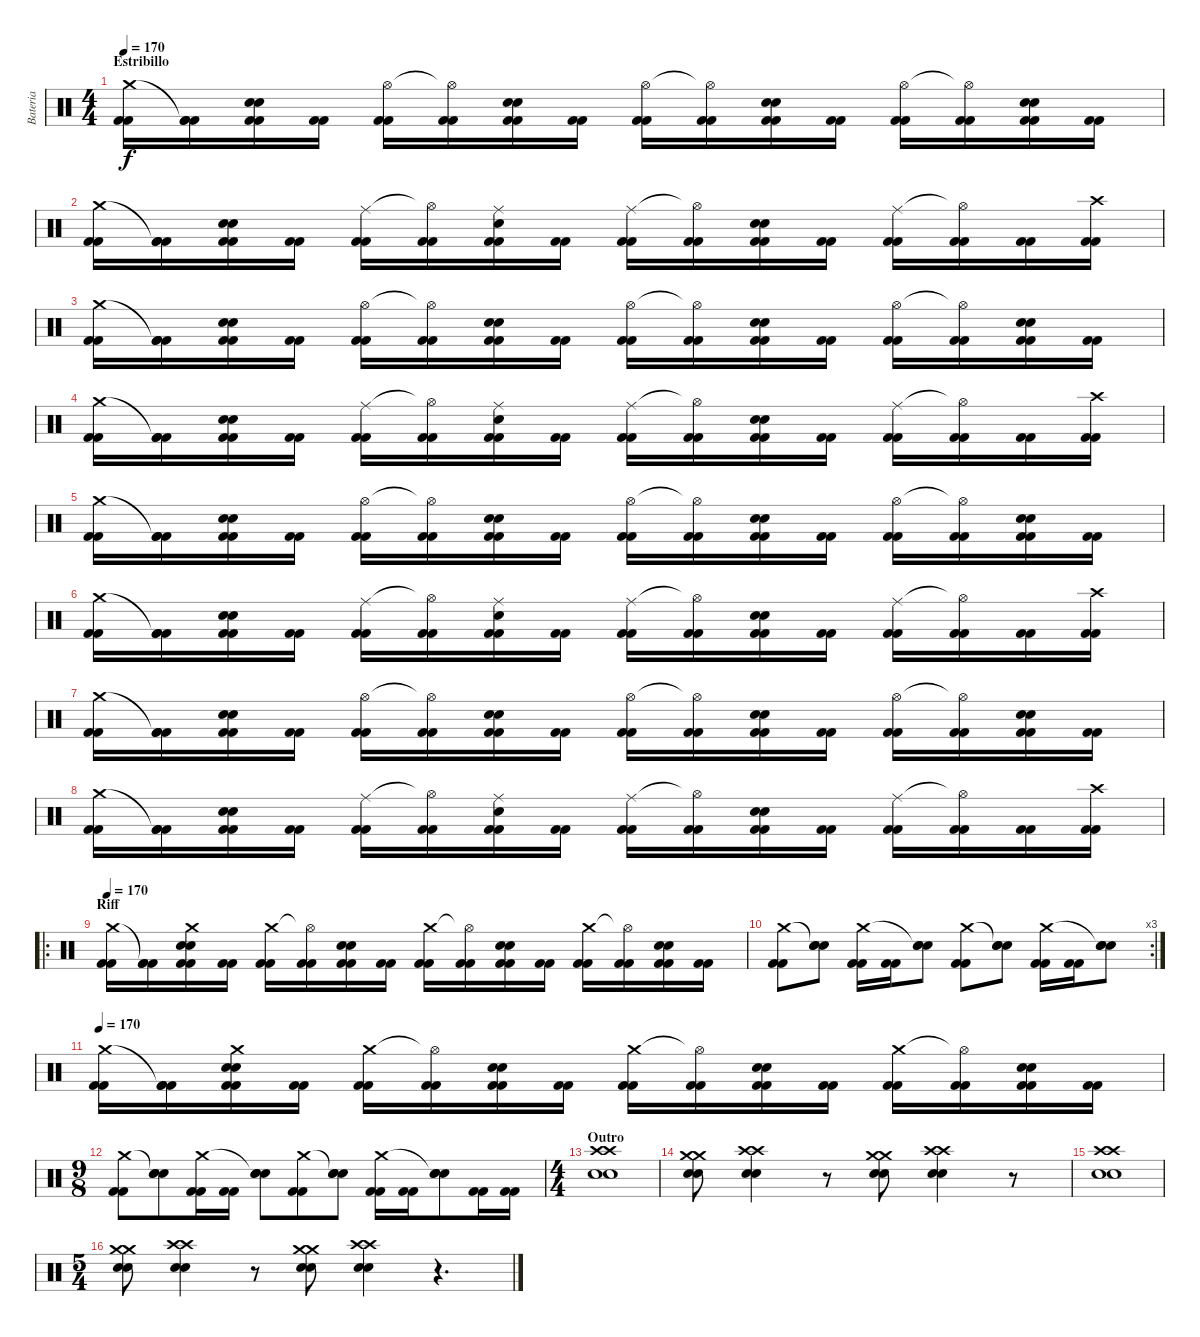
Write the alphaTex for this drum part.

\track ("Bateria" "Bateria") {instrument percussion}
\staff {score}
\articulation defaults
\ts (4 4)
\section ("" "Estribillo")
\tempo 170
\clef neutral
\ks c
("Kick (hit) 2" "Kick (hit) 2" "Crash medium (hit)").16{dy f} ("Kick (hit) 2" "Kick (hit) 2" "Kick (hit) 2"{t}).16 ("Kick (hit) 2" "Kick (hit) 2" "Electric Snare (hit)" "Electric Snare (hit)").16 ("Kick (hit) 2" "Kick (hit) 2").16 ("Kick (hit) 2" "Kick (hit) 2" "Hi-Hat (open)").16 ("Kick (hit) 2" "Kick (hit) 2" "Hi-Hat (open)"{t}).16 ("Kick (hit) 2" "Kick (hit) 2" "Electric Snare (hit)" "Electric Snare (hit)").16 ("Kick (hit) 2" "Kick (hit) 2").16 ("Kick (hit) 2" "Kick (hit) 2" "Hi-Hat (open)").16 ("Kick (hit) 2" "Kick (hit) 2" "Hi-Hat (open)"{t}).16 ("Kick (hit) 2" "Kick (hit) 2" "Electric Snare (hit)" "Electric Snare (hit)").16 ("Kick (hit) 2" "Kick (hit) 2").16 ("Kick (hit) 2" "Kick (hit) 2" "Hi-Hat (open)").16 ("Kick (hit) 2" "Kick (hit) 2" "Hi-Hat (open)"{t}).16 ("Kick (hit) 2" "Kick (hit) 2" "Electric Snare (hit)" "Electric Snare (hit)").16 ("Kick (hit) 2" "Kick (hit) 2").16 |
("Kick (hit) 2" "Kick (hit) 2" "Crash medium (hit)").16 ("Kick (hit) 2" "Kick (hit) 2" "Kick (hit) 2"{t}).16 ("Kick (hit) 2" "Kick (hit) 2" "Electric Snare (hit)" "Electric Snare (hit)").16 ("Kick (hit) 2" "Kick (hit) 2").16 ("Kick (hit) 2" "Kick (hit) 2" "Ride (middle)").16 ("Kick (hit) 2" "Kick (hit) 2" "Hi-Hat (open)"{t}).16 ("Kick (hit) 2" "Kick (hit) 2" "Electric Snare (hit)" "Ride (middle)").16 ("Kick (hit) 2" "Kick (hit) 2").16 ("Kick (hit) 2" "Kick (hit) 2" "Ride (middle)").16 ("Kick (hit) 2" "Kick (hit) 2" "Hi-Hat (open)"{t}).16 ("Kick (hit) 2" "Kick (hit) 2" "Electric Snare (hit)" "Electric Snare (hit)").16 ("Kick (hit) 2" "Kick (hit) 2").16 ("Kick (hit) 2" "Kick (hit) 2" "Ride (middle)").16 ("Kick (hit) 2" "Kick (hit) 2" "Hi-Hat (open)"{t}).16 ("Kick (hit) 2" "Kick (hit) 2").16 ("Kick (hit) 2" "Kick (hit) 2" "Crash high (hit)").16 |
("Kick (hit) 2" "Kick (hit) 2" "Crash medium (hit)").16 ("Kick (hit) 2" "Kick (hit) 2" "Kick (hit) 2"{t}).16 ("Kick (hit) 2" "Kick (hit) 2" "Electric Snare (hit)" "Electric Snare (hit)").16 ("Kick (hit) 2" "Kick (hit) 2").16 ("Kick (hit) 2" "Kick (hit) 2" "Hi-Hat (open)").16 ("Kick (hit) 2" "Kick (hit) 2" "Hi-Hat (open)"{t}).16 ("Kick (hit) 2" "Kick (hit) 2" "Electric Snare (hit)" "Electric Snare (hit)").16 ("Kick (hit) 2" "Kick (hit) 2").16 ("Kick (hit) 2" "Kick (hit) 2" "Hi-Hat (open)").16 ("Kick (hit) 2" "Kick (hit) 2" "Hi-Hat (open)"{t}).16 ("Kick (hit) 2" "Kick (hit) 2" "Electric Snare (hit)" "Electric Snare (hit)").16 ("Kick (hit) 2" "Kick (hit) 2").16 ("Kick (hit) 2" "Kick (hit) 2" "Hi-Hat (open)").16 ("Kick (hit) 2" "Kick (hit) 2" "Hi-Hat (open)"{t}).16 ("Kick (hit) 2" "Kick (hit) 2" "Electric Snare (hit)" "Electric Snare (hit)").16 ("Kick (hit) 2" "Kick (hit) 2").16 |
("Kick (hit) 2" "Kick (hit) 2" "Crash medium (hit)").16 ("Kick (hit) 2" "Kick (hit) 2" "Kick (hit) 2"{t}).16 ("Kick (hit) 2" "Kick (hit) 2" "Electric Snare (hit)" "Electric Snare (hit)").16 ("Kick (hit) 2" "Kick (hit) 2").16 ("Kick (hit) 2" "Kick (hit) 2" "Ride (middle)").16 ("Kick (hit) 2" "Kick (hit) 2" "Hi-Hat (open)"{t}).16 ("Kick (hit) 2" "Kick (hit) 2" "Electric Snare (hit)" "Ride (middle)").16 ("Kick (hit) 2" "Kick (hit) 2").16 ("Kick (hit) 2" "Kick (hit) 2" "Ride (middle)").16 ("Kick (hit) 2" "Kick (hit) 2" "Hi-Hat (open)"{t}).16 ("Kick (hit) 2" "Kick (hit) 2" "Electric Snare (hit)" "Electric Snare (hit)").16 ("Kick (hit) 2" "Kick (hit) 2").16 ("Kick (hit) 2" "Kick (hit) 2" "Ride (middle)").16 ("Kick (hit) 2" "Kick (hit) 2" "Hi-Hat (open)"{t}).16 ("Kick (hit) 2" "Kick (hit) 2").16 ("Kick (hit) 2" "Kick (hit) 2" "Crash high (hit)").16 |
("Kick (hit) 2" "Kick (hit) 2" "Crash medium (hit)").16 ("Kick (hit) 2" "Kick (hit) 2" "Kick (hit) 2"{t}).16 ("Kick (hit) 2" "Kick (hit) 2" "Electric Snare (hit)" "Electric Snare (hit)").16 ("Kick (hit) 2" "Kick (hit) 2").16 ("Kick (hit) 2" "Kick (hit) 2" "Hi-Hat (open)").16 ("Kick (hit) 2" "Kick (hit) 2" "Hi-Hat (open)"{t}).16 ("Kick (hit) 2" "Kick (hit) 2" "Electric Snare (hit)" "Electric Snare (hit)").16 ("Kick (hit) 2" "Kick (hit) 2").16 ("Kick (hit) 2" "Kick (hit) 2" "Hi-Hat (open)").16 ("Kick (hit) 2" "Kick (hit) 2" "Hi-Hat (open)"{t}).16 ("Kick (hit) 2" "Kick (hit) 2" "Electric Snare (hit)" "Electric Snare (hit)").16 ("Kick (hit) 2" "Kick (hit) 2").16 ("Kick (hit) 2" "Kick (hit) 2" "Hi-Hat (open)").16 ("Kick (hit) 2" "Kick (hit) 2" "Hi-Hat (open)"{t}).16 ("Kick (hit) 2" "Kick (hit) 2" "Electric Snare (hit)" "Electric Snare (hit)").16 ("Kick (hit) 2" "Kick (hit) 2").16 |
("Kick (hit) 2" "Kick (hit) 2" "Crash medium (hit)").16 ("Kick (hit) 2" "Kick (hit) 2" "Kick (hit) 2"{t}).16 ("Kick (hit) 2" "Kick (hit) 2" "Electric Snare (hit)" "Electric Snare (hit)").16 ("Kick (hit) 2" "Kick (hit) 2").16 ("Kick (hit) 2" "Kick (hit) 2" "Ride (middle)").16 ("Kick (hit) 2" "Kick (hit) 2" "Hi-Hat (open)"{t}).16 ("Kick (hit) 2" "Kick (hit) 2" "Electric Snare (hit)" "Ride (middle)").16 ("Kick (hit) 2" "Kick (hit) 2").16 ("Kick (hit) 2" "Kick (hit) 2" "Ride (middle)").16 ("Kick (hit) 2" "Kick (hit) 2" "Hi-Hat (open)"{t}).16 ("Kick (hit) 2" "Kick (hit) 2" "Electric Snare (hit)" "Electric Snare (hit)").16 ("Kick (hit) 2" "Kick (hit) 2").16 ("Kick (hit) 2" "Kick (hit) 2" "Ride (middle)").16 ("Kick (hit) 2" "Kick (hit) 2" "Hi-Hat (open)"{t}).16 ("Kick (hit) 2" "Kick (hit) 2").16 ("Kick (hit) 2" "Kick (hit) 2" "Crash high (hit)").16 |
("Kick (hit) 2" "Kick (hit) 2" "Crash medium (hit)").16 ("Kick (hit) 2" "Kick (hit) 2" "Kick (hit) 2"{t}).16 ("Kick (hit) 2" "Kick (hit) 2" "Electric Snare (hit)" "Electric Snare (hit)").16 ("Kick (hit) 2" "Kick (hit) 2").16 ("Kick (hit) 2" "Kick (hit) 2" "Hi-Hat (open)").16 ("Kick (hit) 2" "Kick (hit) 2" "Hi-Hat (open)"{t}).16 ("Kick (hit) 2" "Kick (hit) 2" "Electric Snare (hit)" "Electric Snare (hit)").16 ("Kick (hit) 2" "Kick (hit) 2").16 ("Kick (hit) 2" "Kick (hit) 2" "Hi-Hat (open)").16 ("Kick (hit) 2" "Kick (hit) 2" "Hi-Hat (open)"{t}).16 ("Kick (hit) 2" "Kick (hit) 2" "Electric Snare (hit)" "Electric Snare (hit)").16 ("Kick (hit) 2" "Kick (hit) 2").16 ("Kick (hit) 2" "Kick (hit) 2" "Hi-Hat (open)").16 ("Kick (hit) 2" "Kick (hit) 2" "Hi-Hat (open)"{t}).16 ("Kick (hit) 2" "Kick (hit) 2" "Electric Snare (hit)" "Electric Snare (hit)").16 ("Kick (hit) 2" "Kick (hit) 2").16 |
("Kick (hit) 2" "Kick (hit) 2" "Crash medium (hit)").16 ("Kick (hit) 2" "Kick (hit) 2" "Kick (hit) 2"{t}).16 ("Kick (hit) 2" "Kick (hit) 2" "Electric Snare (hit)" "Electric Snare (hit)").16 ("Kick (hit) 2" "Kick (hit) 2").16 ("Kick (hit) 2" "Kick (hit) 2" "Ride (middle)").16 ("Kick (hit) 2" "Kick (hit) 2" "Hi-Hat (open)"{t}).16 ("Kick (hit) 2" "Kick (hit) 2" "Electric Snare (hit)" "Ride (middle)").16 ("Kick (hit) 2" "Kick (hit) 2").16 ("Kick (hit) 2" "Kick (hit) 2" "Ride (middle)").16 ("Kick (hit) 2" "Kick (hit) 2" "Hi-Hat (open)"{t}).16 ("Kick (hit) 2" "Kick (hit) 2" "Electric Snare (hit)" "Electric Snare (hit)").16 ("Kick (hit) 2" "Kick (hit) 2").16 ("Kick (hit) 2" "Kick (hit) 2" "Ride (middle)").16 ("Kick (hit) 2" "Kick (hit) 2" "Hi-Hat (open)"{t}).16 ("Kick (hit) 2" "Kick (hit) 2").16 ("Kick (hit) 2" "Kick (hit) 2" "Crash high (hit)").16 |
\ro
\section ("" "Riff")
\tempo 170
("Kick (hit) 2" "Kick (hit) 2" "Crash medium (hit)").16 ("Kick (hit) 2" "Kick (hit) 2" "Kick (hit) 2"{t}).16 ("Kick (hit) 2" "Kick (hit) 2" "Electric Snare (hit)" "Electric Snare (hit)" "Crash medium (hit)").16 ("Kick (hit) 2" "Kick (hit) 2").16 ("Kick (hit) 2" "Kick (hit) 2" "Crash medium (hit)").16 ("Kick (hit) 2" "Kick (hit) 2" "Hi-Hat (open)"{t}).16 ("Kick (hit) 2" "Kick (hit) 2" "Electric Snare (hit)" "Electric Snare (hit)").16 ("Kick (hit) 2" "Kick (hit) 2").16 ("Kick (hit) 2" "Kick (hit) 2" "Crash medium (hit)").16 ("Kick (hit) 2" "Kick (hit) 2" "Hi-Hat (open)"{t}).16 ("Kick (hit) 2" "Kick (hit) 2" "Electric Snare (hit)" "Electric Snare (hit)").16 ("Kick (hit) 2" "Kick (hit) 2").16 ("Kick (hit) 2" "Kick (hit) 2" "Crash medium (hit)").16 ("Kick (hit) 2" "Kick (hit) 2" "Hi-Hat (open)"{t}).16 ("Kick (hit) 2" "Kick (hit) 2" "Electric Snare (hit)" "Electric Snare (hit)").16 ("Kick (hit) 2" "Kick (hit) 2").16 |
\rc 3
("Kick (hit) 2" "Kick (hit) 2" "Crash medium (hit)").8 ("Electric Snare (hit)" "Electric Snare (hit)" "Snare (hit)"{t}).8 ("Kick (hit) 2" "Kick (hit) 2" "Crash medium (hit)").16 ("Kick (hit) 2" "Kick (hit) 2").16 ("Electric Snare (hit)" "Electric Snare (hit)" "Snare (hit)"{t}).8 ("Kick (hit) 2" "Kick (hit) 2" "Crash medium (hit)").8 ("Electric Snare (hit)" "Electric Snare (hit)" "Snare (hit)"{t}).8 ("Kick (hit) 2" "Kick (hit) 2" "Crash medium (hit)").16 ("Kick (hit) 2" "Kick (hit) 2").16 ("Electric Snare (hit)" "Electric Snare (hit)" "Snare (hit)"{t}).8 |
\tempo 170
("Kick (hit) 2" "Kick (hit) 2" "Crash medium (hit)").16 ("Kick (hit) 2" "Kick (hit) 2" "Kick (hit) 2"{t}).16 ("Kick (hit) 2" "Kick (hit) 2" "Electric Snare (hit)" "Electric Snare (hit)" "Crash medium (hit)").16 ("Kick (hit) 2" "Kick (hit) 2").16 ("Kick (hit) 2" "Kick (hit) 2" "Crash medium (hit)").16 ("Kick (hit) 2" "Kick (hit) 2" "Hi-Hat (open)"{t}).16 ("Kick (hit) 2" "Kick (hit) 2" "Electric Snare (hit)" "Electric Snare (hit)").16 ("Kick (hit) 2" "Kick (hit) 2").16 ("Kick (hit) 2" "Kick (hit) 2" "Crash medium (hit)").16 ("Kick (hit) 2" "Kick (hit) 2" "Hi-Hat (open)"{t}).16 ("Kick (hit) 2" "Kick (hit) 2" "Electric Snare (hit)" "Electric Snare (hit)").16 ("Kick (hit) 2" "Kick (hit) 2").16 ("Kick (hit) 2" "Kick (hit) 2" "Crash medium (hit)").16 ("Kick (hit) 2" "Kick (hit) 2" "Hi-Hat (open)"{t}).16 ("Kick (hit) 2" "Kick (hit) 2" "Electric Snare (hit)" "Electric Snare (hit)").16 ("Kick (hit) 2" "Kick (hit) 2").16 |
\ts (9 8)
("Kick (hit) 2" "Kick (hit) 2" "Crash medium (hit)").8 ("Electric Snare (hit)" "Electric Snare (hit)" "Snare (hit)"{t}).8 ("Kick (hit) 2" "Kick (hit) 2" "Crash medium (hit)").16 ("Kick (hit) 2" "Kick (hit) 2").16 ("Electric Snare (hit)" "Electric Snare (hit)" "Snare (hit)"{t}).8 ("Kick (hit) 2" "Kick (hit) 2" "Crash medium (hit)").8 ("Electric Snare (hit)" "Electric Snare (hit)" "Snare (hit)"{t}).8 ("Kick (hit) 2" "Kick (hit) 2" "Crash medium (hit)").16 ("Kick (hit) 2" "Kick (hit) 2").16 ("Electric Snare (hit)" "Electric Snare (hit)" "Snare (hit)"{t}).8 ("Kick (hit) 2" "Kick (hit) 2").16 ("Kick (hit) 2" "Kick (hit) 2").16 |
\ts (4 4)
\section ("" "Outro")
("Crash high (hit)" "Crash high (hit)" "Snare (hit) 2" "Snare (hit) 2").1 |
("Crash medium (hit)" "Crash medium (hit)" "Snare (hit) 2" "Snare (hit) 2").8 ("Crash high (hit)" "Crash high (hit)" "Snare (hit) 2" "Snare (hit) 2").4 r.8 ("Crash medium (hit)" "Crash medium (hit)" "Snare (hit) 2" "Snare (hit) 2").8 ("Crash high (hit)" "Crash high (hit)" "Snare (hit) 2" "Snare (hit) 2").4 r.8 |
("Crash high (hit)" "Crash high (hit)" "Snare (hit) 2" "Snare (hit) 2").1 |
\ts (5 4)
("Crash medium (hit)" "Crash medium (hit)" "Snare (hit) 2" "Snare (hit) 2").8 ("Crash high (hit)" "Crash high (hit)" "Snare (hit) 2" "Snare (hit) 2").4 r.8 ("Crash medium (hit)" "Crash medium (hit)" "Snare (hit) 2" "Snare (hit) 2").8 ("Crash high (hit)" "Crash high (hit)" "Snare (hit) 2" "Snare (hit) 2").4 r.4{d}
